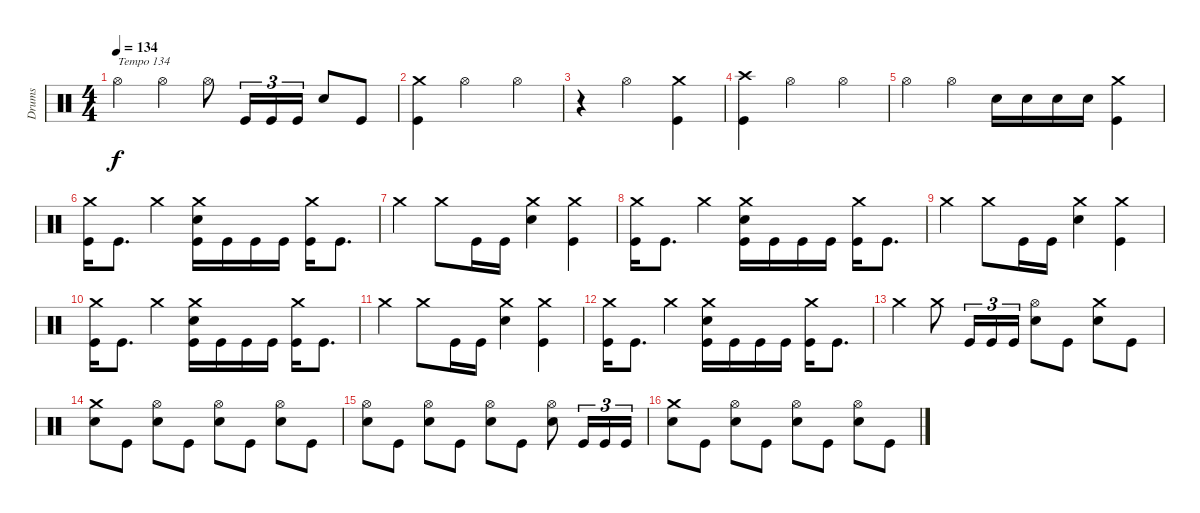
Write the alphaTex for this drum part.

\track ("Drums" "Drums") {instrument percussion}
\staff {score}
\articulation defaults
\ts (4 4)
\tempo 134
\clef neutral
\ks c "Hi-Hat (open)".4{txt "Tempo 134" dy f} "Hi-Hat (open)".4 "Hi-Hat (open)".8 "Kick (hit)".16{tu (3 2)} "Kick (hit)".16{tu (3 2)} "Kick (hit)".16{tu (3 2)} "Snare (hit) 2".8 "Kick (hit)".8
|
("Crash medium (hit)" "Kick (hit)").4 "Hi-Hat (open)".2 "Hi-Hat (open)".4 |
r.4 "Hi-Hat (open)".2 ("Crash medium (hit)" "Kick (hit)").4 |
("Crash high (hit)" "Kick (hit)").4 "Hi-Hat (open)".2 "Hi-Hat (open)".4 |
"Hi-Hat (open)".4 "Hi-Hat (open)".4 "Snare (hit) 2".16 "Snare (hit) 2".16 "Snare (hit) 2".16 "Snare (hit) 2".16 ("Crash medium (hit)" "Kick (hit)").4 |
("Crash medium (hit)" "Kick (hit)").16 "Kick (hit)".8{d} "Crash medium (hit)".4 ("Kick (hit)" "Crash medium (hit)" "Snare (hit) 2").16 "Kick (hit)".16 "Kick (hit)".16 "Kick (hit)".16 ("Crash medium (hit)" "Kick (hit)").16 "Kick (hit)".8{d} |
"Crash medium (hit)".4 "Crash medium (hit)".8 "Kick (hit)".16 "Kick (hit)".16 ("Crash medium (hit)" "Snare (hit) 2").4 ("Crash medium (hit)" "Kick (hit)").4 |
("Crash medium (hit)" "Kick (hit)").16 "Kick (hit)".8{d} "Crash medium (hit)".4 ("Kick (hit)" "Crash medium (hit)" "Snare (hit) 2").16 "Kick (hit)".16 "Kick (hit)".16 "Kick (hit)".16 ("Crash medium (hit)" "Kick (hit)").16 "Kick (hit)".8{d} |
"Crash medium (hit)".4 "Crash medium (hit)".8 "Kick (hit)".16 "Kick (hit)".16 ("Crash medium (hit)" "Snare (hit) 2").4 ("Crash medium (hit)" "Kick (hit)").4 |
("Crash medium (hit)" "Kick (hit)").16 "Kick (hit)".8{d} "Crash medium (hit)".4 ("Kick (hit)" "Crash medium (hit)" "Snare (hit) 2").16 "Kick (hit)".16 "Kick (hit)".16 "Kick (hit)".16 ("Crash medium (hit)" "Kick (hit)").16 "Kick (hit)".8{d} |
"Crash medium (hit)".4 "Crash medium (hit)".8 "Kick (hit)".16 "Kick (hit)".16 ("Crash medium (hit)" "Snare (hit) 2").4 ("Crash medium (hit)" "Kick (hit)").4 |
("Crash medium (hit)" "Kick (hit)").16 "Kick (hit)".8{d} "Crash medium (hit)".4 ("Kick (hit)" "Crash medium (hit)" "Snare (hit) 2").16 "Kick (hit)".16 "Kick (hit)".16 "Kick (hit)".16 ("Crash medium (hit)" "Kick (hit)").16 "Kick (hit)".8{d} |
"Crash medium (hit)".4 "Crash medium (hit)".8 "Kick (hit)".16{tu (3 2)} "Kick (hit)".16{tu (3 2)} "Kick (hit)".16{tu (3 2)} ("Hi-Hat (open)" "Snare (hit) 2").8 "Kick (hit)".8 ("Crash medium (hit)" "Snare (hit) 2").8 "Kick (hit)".8 |
("Crash medium (hit)" "Snare (hit) 2").8 "Kick (hit)".8 ("Hi-Hat (open)" "Snare (hit) 2").8 "Kick (hit)".8 ("Hi-Hat (open)" "Snare (hit) 2").8 "Kick (hit)".8 ("Hi-Hat (open)" "Snare (hit) 2").8 "Kick (hit)".8 |
("Hi-Hat (open)" "Snare (hit) 2").8 "Kick (hit)".8 ("Hi-Hat (open)" "Snare (hit) 2").8 "Kick (hit)".8 ("Hi-Hat (open)" "Snare (hit) 2").8 "Kick (hit)".8 ("Hi-Hat (open)" "Snare (hit) 2").8 "Kick (hit)".16{tu (3 2)} "Kick (hit)".16{tu (3 2)} "Kick (hit)".16{tu (3 2)} |
("Crash medium (hit)" "Snare (hit) 2").8 "Kick (hit)".8 ("Hi-Hat (open)" "Snare (hit) 2").8 "Kick (hit)".8 ("Hi-Hat (open)" "Snare (hit) 2").8 "Kick (hit)".8 ("Hi-Hat (open)" "Snare (hit) 2").8 "Kick (hit)".8
